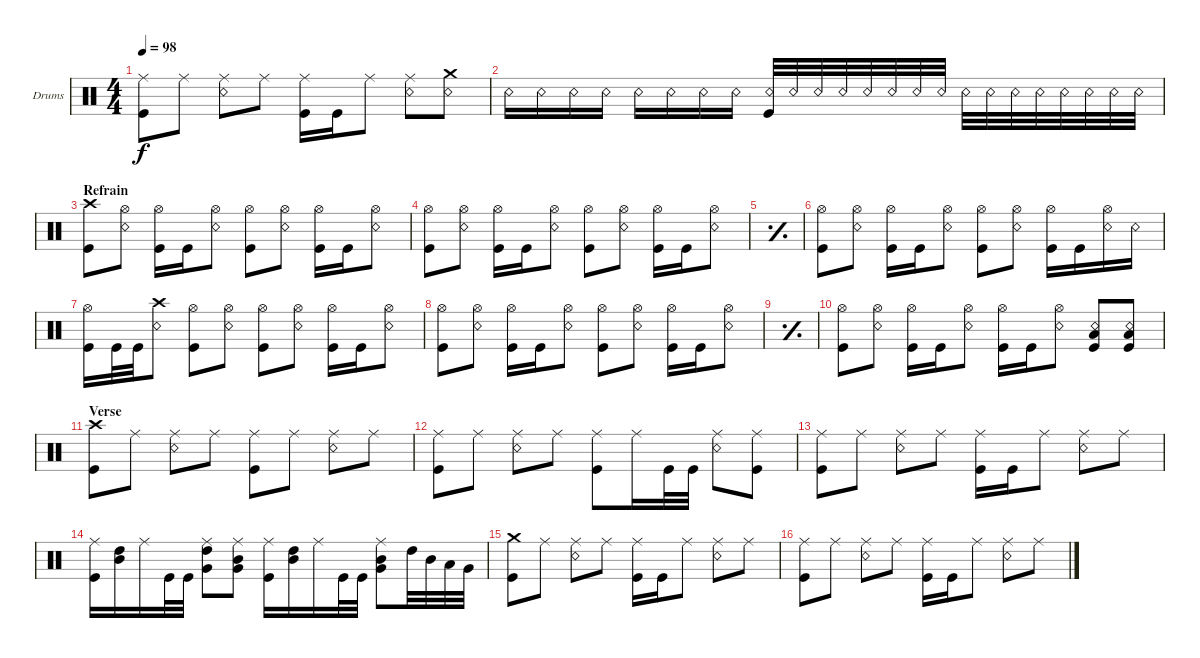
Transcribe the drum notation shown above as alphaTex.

\defaultSystemsLayout 4
\bracketExtendMode groupsimilarinstruments
\firstSystemTrackNameOrientation horizontal
\otherSystemsTrackNameOrientation horizontal
\track ("Drumkit" "Drums") {instrument percussion}
\staff {score}
\articulation defaults
\ts (4 4)
\tempo 98
\clef neutral
\ks c
("Kick (hit)" "Ride (middle)").8{dy f} "Ride (middle)".8 ("Snare (rim shot)" "Ride (middle)").8 "Ride (middle)".8 ("Ride (middle)" "Kick (hit)").16 "Kick (hit)".16 "Ride (middle)".8 ("Ride (middle)" "Snare (rim shot)").8 ("Snare (rim shot)" "Crash medium (hit)").8 |
"Snare (rim shot)".16 "Snare (rim shot)".16 "Snare (rim shot)".16 "Snare (rim shot)".16 "Snare (rim shot)".16 "Snare (rim shot)".16 "Snare (rim shot)".16 "Snare (rim shot)".16 ("Kick (hit)" "Snare (rim shot)").32 "Snare (rim shot)".32 "Snare (rim shot)".32 "Snare (rim shot)".32 "Snare (rim shot)".32 "Snare (rim shot)".32 "Snare (rim shot)".32 "Snare (rim shot)".32 "Snare (rim shot)".32 "Snare (rim shot)".32 "Snare (rim shot)".32 "Snare (rim shot)".32 "Snare (rim shot)".32 "Snare (rim shot)".32 "Snare (rim shot)".32 "Snare (rim shot)".32 |
\section ("" "Refrain")
("Kick (hit)" "Crash high (hit)").8 ("Snare (rim shot)" "Hi-Hat (open)").8 ("Kick (hit)" "Hi-Hat (open)").16 "Kick (hit)".16 ("Snare (rim shot)" "Hi-Hat (open)").8 ("Kick (hit)" "Hi-Hat (open)").8 ("Snare (rim shot)" "Hi-Hat (open)").8 ("Kick (hit)" "Hi-Hat (open)").16 "Kick (hit)".16 ("Snare (rim shot)" "Hi-Hat (open)").8 |
("Kick (hit)" "Hi-Hat (open)").8 ("Snare (rim shot)" "Hi-Hat (open)").8 ("Kick (hit)" "Hi-Hat (open)").16 "Kick (hit)".16 ("Snare (rim shot)" "Hi-Hat (open)").8 ("Kick (hit)" "Hi-Hat (open)").8 ("Snare (rim shot)" "Hi-Hat (open)").8 ("Kick (hit)" "Hi-Hat (open)").16 "Kick (hit)".16 ("Snare (rim shot)" "Hi-Hat (open)").8 |
\simile simple
|
\simile none
("Kick (hit)" "Hi-Hat (open)").8 ("Snare (rim shot)" "Hi-Hat (open)").8 ("Kick (hit)" "Hi-Hat (open)").16 "Kick (hit)".16 ("Snare (rim shot)" "Hi-Hat (open)").8 ("Kick (hit)" "Hi-Hat (open)").8 ("Snare (rim shot)" "Hi-Hat (open)").8 ("Kick (hit)" "Hi-Hat (open)").16 "Kick (hit)".16 ("Snare (rim shot)" "Hi-Hat (open)").16 "Snare (rim shot)".16 |
("Kick (hit)" "Hi-Hat (open)").16 "Kick (hit)".32 "Kick (hit)".32 ("Snare (rim shot)" "Crash high (hit)").8 ("Kick (hit)" "Hi-Hat (open)").8 ("Snare (rim shot)" "Hi-Hat (open)").8 ("Kick (hit)" "Hi-Hat (open)").8 ("Snare (rim shot)" "Hi-Hat (open)").8 ("Kick (hit)" "Hi-Hat (open)").16 "Kick (hit)".16 ("Snare (rim shot)" "Hi-Hat (open)").8 |
("Kick (hit)" "Hi-Hat (open)").8 ("Snare (rim shot)" "Hi-Hat (open)").8 ("Kick (hit)" "Hi-Hat (open)").16 "Kick (hit)".16 ("Snare (rim shot)" "Hi-Hat (open)").8 ("Kick (hit)" "Hi-Hat (open)").8 ("Snare (rim shot)" "Hi-Hat (open)").8 ("Kick (hit)" "Hi-Hat (open)").16 "Kick (hit)".16 ("Snare (rim shot)" "Hi-Hat (open)").8 |
\simile simple
|
\simile none
("Kick (hit)" "Hi-Hat (open)").8 ("Snare (rim shot)" "Hi-Hat (open)").8 ("Kick (hit)" "Hi-Hat (open)").16 "Kick (hit)".16 ("Snare (rim shot)" "Hi-Hat (open)").8 ("Kick (hit)" "Hi-Hat (open)").16 "Kick (hit)".16 ("Snare (rim shot)" "Hi-Hat (open)").8 ("Snare (rim shot)" "Low Tom (hit)" "Kick (hit)").8 ("Snare (rim shot)" "Low Tom (hit)" "Kick (hit)").8 |
\section ("" "Verse")
("Kick (hit)" "Crash high (hit)").8 "Ride (middle)".8 ("Ride (middle)" "Snare (rim shot)").8 "Ride (middle)".8 ("Ride (middle)" "Kick (hit)").8 "Ride (middle)".8 ("Ride (middle)" "Snare (rim shot)").8 "Ride (middle)".8 |
("Ride (middle)" "Kick (hit)").8 "Ride (middle)".8 ("Ride (middle)" "Snare (rim shot)").8 "Ride (middle)".8 ("Ride (middle)" "Kick (hit)").8 "Ride (middle)".16 "Kick (hit)".32 "Kick (hit)".32 ("Ride (middle)" "Snare (rim shot)").8 ("Ride (middle)" "Kick (hit)").8 |
("Kick (hit)" "Ride (middle)").8 "Ride (middle)".8 ("Snare (rim shot)" "Ride (middle)").8 "Ride (middle)".8 ("Ride (middle)" "Kick (hit)").16 "Kick (hit)".16 "Ride (middle)".8 ("Ride (middle)" "Snare (rim shot)").8 "Ride (middle)".8 |
("Kick (hit)" "Ride (middle)").16 ("High Tom (hit)" "Mid Tom (hit)").16 "Ride (middle)".16 "Kick (hit)".32 "Kick (hit)".32 ("Ride (middle)" "Very Low Tom (hit)" "High Tom (hit)").8 ("Ride (middle)" "Mid Tom (hit)" "Very Low Tom (hit)").8 ("Ride (middle)" "Kick (hit)").16 ("High Tom (hit)" "Mid Tom (hit)").16 "Ride (middle)".16 "Kick (hit)".32 "Kick (hit)".32 ("Ride (middle)" "Very Low Tom (hit)" "Mid Tom (hit)").8 "High Tom (hit)".32 "Mid Tom (hit)".32 "Low Tom (hit)".32 "Very Low Tom (hit)".32 |
("Crash medium (hit)" "Kick (hit)").8 "Ride (middle)".8 ("Snare (rim shot)" "Ride (middle)").8 "Ride (middle)".8 ("Ride (middle)" "Kick (hit)").16 "Kick (hit)".16 "Ride (middle)".8 ("Ride (middle)" "Snare (rim shot)").8 "Ride (middle)".8 |
("Kick (hit)" "Ride (middle)").8 "Ride (middle)".8 ("Snare (rim shot)" "Ride (middle)").8 "Ride (middle)".8 ("Ride (middle)" "Kick (hit)").16 "Kick (hit)".16 "Ride (middle)".8 ("Ride (middle)" "Snare (rim shot)").8 "Ride (middle)".8
